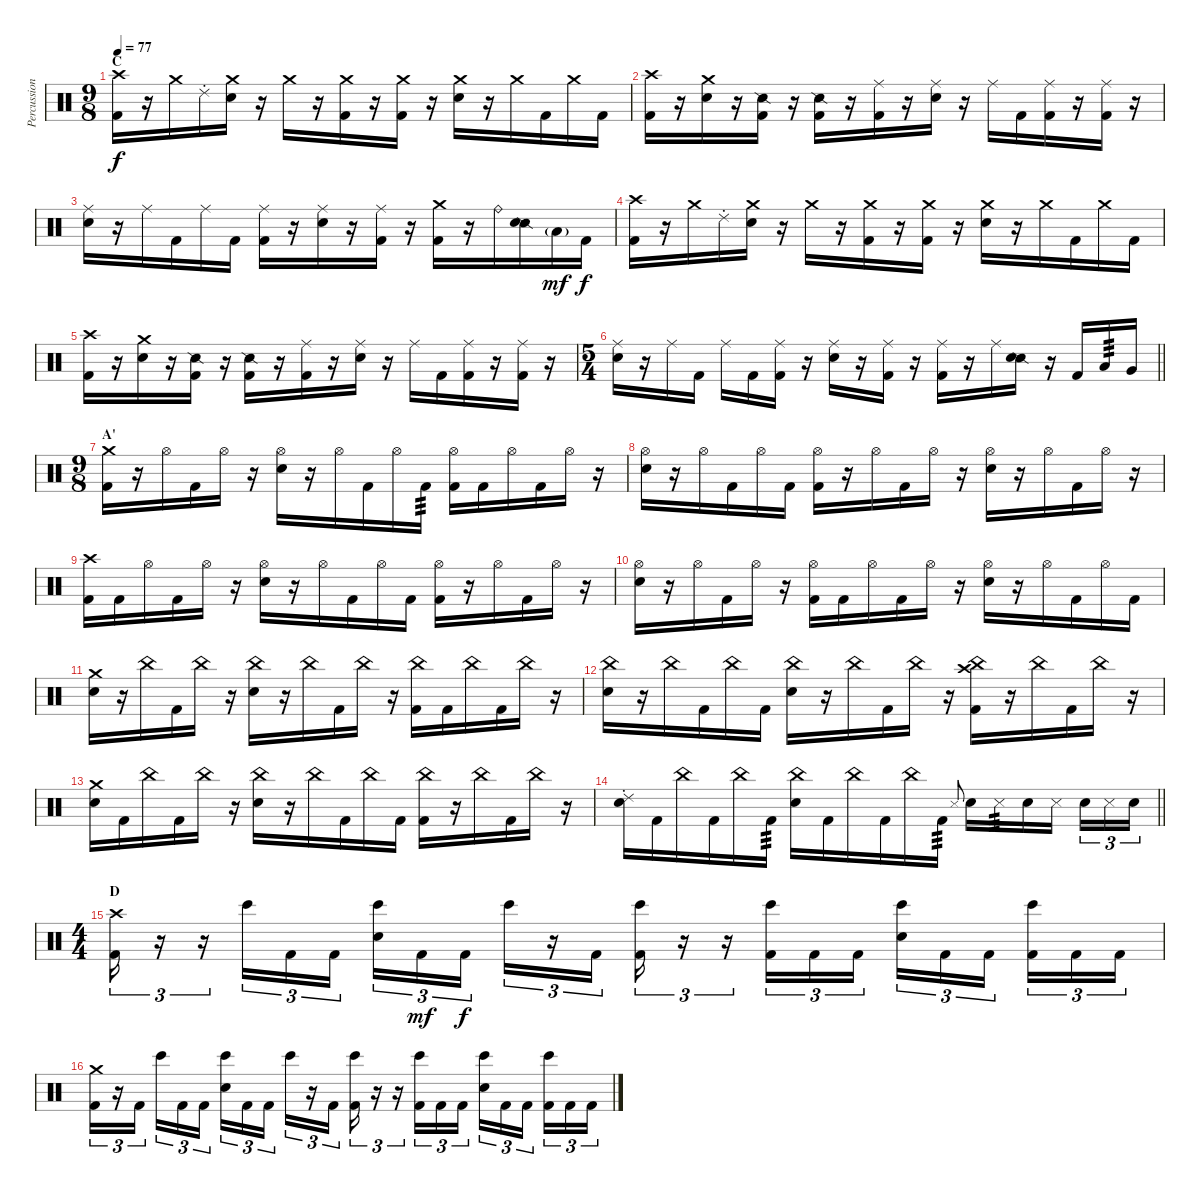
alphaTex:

\track ("Percussion" "Percussion") {instrument percussion}
\staff {score}
\articulation defaults
\ts (9 8)
\section ("" "C")
\tempo 77
\clef neutral
\ks c
("Crash high (hit)" "Kick (hit) 2").16{dy f} r.16 "Crash medium (hit)".16 "Ride (choke) 2".16 ("Crash medium (hit)" "Snare (hit) 2").16 r.16 "Crash medium (hit)".16 r.16 ("Crash medium (hit)" "Kick (hit) 2").16 r.16 ("Crash medium (hit)" "Kick (hit) 2").16 r.16 ("Crash medium (hit)" "Snare (hit) 2").16 r.16 "Crash medium (hit)".16 "Kick (hit) 2".16 "Crash medium (hit)".16 "Kick (hit) 2".16 |
("Crash high (hit)" "Kick (hit) 2").16 r.16 ("Crash medium (hit)" "Snare (hit) 2").16 r.16 ("Snare (side stick) 2" "Kick (hit) 2").16 r.16 ("Snare (side stick) 2" "Kick (hit) 2").16 r.16 ("Ride (middle)" "Kick (hit) 2").16 r.16 ("Ride (middle)" "Snare (hit) 2").16 r.16 "Ride (middle)".16 "Kick (hit) 2".16 ("Ride (middle)" "Kick (hit) 2").16 r.16 ("Ride (middle)" "Kick (hit) 2").16 r.16 |
("Ride (middle)" "Snare (hit) 2").16 r.16 "Ride (middle)".16 "Kick (hit) 2".16 "Ride (middle)".16 "Kick (hit) 2".16 ("Ride (middle)" "Kick (hit) 2").16 r.16 ("Ride (middle)" "Snare (hit) 2").16 r.16 ("Ride (middle)" "Kick (hit) 2").16 r.16 ("Crash medium (hit)" "Kick (hit) 2").16 r.16 "Ride (bell)".16 ("Snare (side stick) 2" "Snare (hit) 2").16 "Low Tom (hit)"{g}.16{dy mf} "Kick (hit) 2".16{dy f} |
("Crash high (hit)" "Kick (hit) 2").16 r.16 "Crash medium (hit)".16 "Ride (choke) 2".16 ("Crash medium (hit)" "Snare (hit) 2").16 r.16 "Crash medium (hit)".16 r.16 ("Crash medium (hit)" "Kick (hit) 2").16 r.16 ("Crash medium (hit)" "Kick (hit) 2").16 r.16 ("Crash medium (hit)" "Snare (hit) 2").16 r.16 "Crash medium (hit)".16 "Kick (hit) 2".16 "Crash medium (hit)".16 "Kick (hit) 2".16 |
("Crash high (hit)" "Kick (hit) 2").16 r.16 ("Crash medium (hit)" "Snare (hit) 2").16 r.16 ("Snare (side stick) 2" "Kick (hit) 2").16 r.16 ("Snare (side stick) 2" "Kick (hit) 2").16 r.16 ("Ride (middle)" "Kick (hit) 2").16 r.16 ("Ride (middle)" "Snare (hit) 2").16 r.16 "Ride (middle)".16 "Kick (hit) 2".16 ("Ride (middle)" "Kick (hit) 2").16 r.16 ("Ride (middle)" "Kick (hit) 2").16 r.16 |
\ts (5 4)
\barLineRight lightlight
("Ride (middle)" "Snare (hit) 2").16 r.16 "Ride (middle)".16 "Kick (hit) 2".16 "Ride (middle)".16 "Kick (hit) 2".16 ("Ride (middle)" "Kick (hit) 2").16 r.16 ("Ride (middle)" "Snare (hit) 2").16 r.16 ("Ride (middle)" "Kick (hit) 2").16 r.16 ("Ride (middle)" "Kick (hit) 2").16 r.16 "Ride (middle)".16 ("Snare (side stick) 2" "Snare (hit) 2").16 r.16 "Kick (hit) 2".16 "Low Tom (hit)".16{tp 3} "Very Low Tom (hit)".16 |
\ts (9 8)
\section ("" "A'")
("Crash medium (hit)" "Kick (hit) 2").16 r.16 "Hi-Hat (open)".16 "Kick (hit) 2".16 "Hi-Hat (open)".16 r.16 ("Hi-Hat (open)" "Snare (hit) 2").16 r.16 "Hi-Hat (open)".16 "Kick (hit) 2".16 "Hi-Hat (open)".16 "Kick (hit) 2".16{tp 3} ("Hi-Hat (open)" "Kick (hit) 2").16 "Kick (hit) 2".16 "Hi-Hat (open)".16 "Kick (hit) 2".16 "Hi-Hat (open)".16 r.16 |
("Hi-Hat (open)" "Snare (hit) 2").16 r.16 "Hi-Hat (open)".16 "Kick (hit) 2".16 "Hi-Hat (open)".16 "Kick (hit) 2".16 ("Hi-Hat (open)" "Kick (hit) 2").16 r.16 "Hi-Hat (open)".16 "Kick (hit) 2".16 "Hi-Hat (open)".16 r.16 ("Hi-Hat (open)" "Snare (hit) 2").16 r.16 "Hi-Hat (open)".16 "Kick (hit) 2".16 "Hi-Hat (open)".16 r.16 |
("Crash high (hit)" "Kick (hit) 2").16 "Kick (hit) 2".16 "Hi-Hat (open)".16 "Kick (hit) 2".16 "Hi-Hat (open)".16 r.16 ("Hi-Hat (open)" "Snare (hit) 2").16 r.16 "Hi-Hat (open)".16 "Kick (hit) 2".16 "Hi-Hat (open)".16 "Kick (hit) 2".16 ("Hi-Hat (open)" "Kick (hit) 2").16 r.16 "Hi-Hat (open)".16 "Kick (hit) 2".16 "Hi-Hat (open)".16 r.16 |
("Hi-Hat (open)" "Snare (hit) 2").16 r.16 "Hi-Hat (open)".16 "Kick (hit) 2".16 "Hi-Hat (open)".16 r.16 ("Hi-Hat (open)" "Kick (hit) 2").16 "Kick (hit) 2".16 "Hi-Hat (open)".16 "Kick (hit) 2".16 "Hi-Hat (open)".16 r.16 ("Hi-Hat (open)" "Snare (hit) 2").16 r.16 "Hi-Hat (open)".16 "Kick (hit) 2".16 "Hi-Hat (open)".16 "Kick (hit) 2".16 |
("Crash medium (hit)" "Snare (hit) 2").16 r.16 "China (hit)".16 "Kick (hit) 2".16 "China (hit)".16 r.16 ("China (hit)" "Snare (hit) 2").16 r.16 "China (hit)".16 "Kick (hit) 2".16 "China (hit)".16 r.16 ("China (hit)" "Kick (hit) 2").16 "Kick (hit) 2".16 "China (hit)".16 "Kick (hit) 2".16 "China (hit)".16 r.16 |
("China (hit)" "Snare (hit) 2").16 r.16 "China (hit)".16 "Kick (hit) 2".16 "China (hit)".16 "Kick (hit) 2".16 ("China (hit)" "Snare (hit) 2").16 r.16 "China (hit)".16 "Kick (hit) 2".16 "China (hit)".16 r.16 ("China (hit)" "Crash high (hit)" "Kick (hit) 2").16 r.16 "China (hit)".16 "Kick (hit) 2".16 "China (hit)".16 r.16 |
("Crash medium (hit)" "Snare (hit) 2").16 "Kick (hit) 2".16 "China (hit)".16 "Kick (hit) 2".16 "China (hit)".16 r.16 ("China (hit)" "Snare (hit) 2").16 r.16 "China (hit)".16 "Kick (hit) 2".16 "China (hit)".16 "Kick (hit) 2".16 ("China (hit)" "Kick (hit) 2").16 r.16 "China (hit)".16 "Kick (hit) 2".16 "China (hit)".16 r.16 |
\barLineRight lightlight
("Ride (choke) 2" "Snare (hit) 2").16 "Kick (hit) 2".16 "China (hit)".16 "Kick (hit) 2".16 "China (hit)".16 "Kick (hit) 2".16{tp 3} ("China (hit)" "Snare (hit) 2").16 "Kick (hit) 2".16 "China (hit)".16 "Kick (hit) 2".16 "China (hit)".16 "Kick (hit) 2".16{tp 3} "Metronome (hit)".8{gr onbeat} "Snare (hit) 2".16 "Metronome (hit)".16{tp 3} "Snare (hit) 2".16 "Metronome (hit)".16{beam splitsecondary} "Snare (hit) 2".16{tu (3 2)} "Metronome (hit)".16{tu (3 2)} "Snare (hit) 2".16{tu (3 2)} |
\ts (4 4)
\section ("" "D")
("Crash high (hit)" "Kick (hit) 2").16{tu (3 2)} r.16{tu (3 2)} r.16{tu (3 2)} "Bongo High (hit)".16{tu (3 2)} "Kick (hit) 2".16{tu (3 2)} "Kick (hit) 2".16{tu (3 2)} ("Bongo High (hit)" "Snare (hit) 2").16{tu (3 2)} "Kick (hit) 2".16{tu (3 2) dy mf} "Kick (hit) 2".16{tu (3 2) dy f beam splitsecondary} "Bongo High (hit)".16{tu (3 2)} r.16{tu (3 2)} "Kick (hit) 2".16{tu (3 2)} ("Bongo High (hit)" "Kick (hit) 2").16{tu (3 2)} r.16{tu (3 2)} r.16{tu (3 2)} ("Bongo High (hit)" "Kick (hit) 2").16{tu (3 2)} "Kick (hit) 2".16{tu (3 2)} "Kick (hit) 2".16{tu (3 2)} ("Bongo High (hit)" "Snare (hit) 2").16{tu (3 2)} "Kick (hit) 2".16{tu (3 2)} "Kick (hit) 2".16{tu (3 2) beam splitsecondary} ("Bongo High (hit)" "Kick (hit) 2").16{tu (3 2)} "Kick (hit) 2".16{tu (3 2)} "Kick (hit) 2".16{tu (3 2)} |
("Crash medium (hit)" "Kick (hit) 2").16{tu (3 2)} r.16{tu (3 2)} "Kick (hit) 2".16{tu (3 2) beam splitsecondary} "Bongo High (hit)".16{tu (3 2)} "Kick (hit) 2".16{tu (3 2)} "Kick (hit) 2".16{tu (3 2)} ("Bongo High (hit)" "Snare (hit) 2").16{tu (3 2)} "Kick (hit) 2".16{tu (3 2)} "Kick (hit) 2".16{tu (3 2) beam splitsecondary} "Bongo High (hit)".16{tu (3 2)} r.16{tu (3 2)} "Kick (hit) 2".16{tu (3 2)} ("Bongo High (hit)" "Kick (hit) 2").16{tu (3 2)} r.16{tu (3 2)} r.16{tu (3 2)} ("Bongo High (hit)" "Kick (hit) 2").16{tu (3 2)} "Kick (hit) 2".16{tu (3 2)} "Kick (hit) 2".16{tu (3 2)} ("Bongo High (hit)" "Snare (hit) 2").16{tu (3 2)} "Kick (hit) 2".16{tu (3 2)} "Kick (hit) 2".16{tu (3 2) beam splitsecondary} ("Bongo High (hit)" "Kick (hit) 2").16{tu (3 2)} "Kick (hit) 2".16{tu (3 2)} "Kick (hit) 2".16{tu (3 2)}
